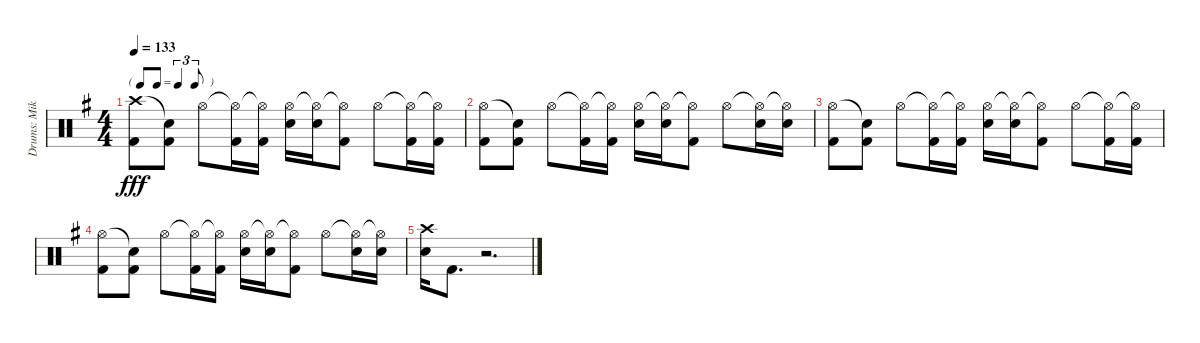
\track ("Drums: Mike" "Drums: Mik") {instrument percussion}
\staff {score}
\articulation defaults
\ts (4 4)
\tf triplet8th
\tempo 133
\clef neutral
\ks g
("Crash high (hit)" "Kick (hit) 2").8{dy fff} ("Snare (hit)"{t} "Kick (hit) 2").8 "Hi-Hat (open)".8 ("Hi-Hat (open)"{t} "Kick (hit) 2").16 ("Hi-Hat (open)"{t} "Kick (hit) 2").16 ("Hi-Hat (open)" "Electric Snare (hit)").16 ("Hi-Hat (open)"{t} "Electric Snare (hit)").16 ("Hi-Hat (open)"{t} "Kick (hit) 2").8 "Hi-Hat (open)".8 ("Hi-Hat (open)"{t} "Kick (hit) 2").16 ("Hi-Hat (open)"{t} "Kick (hit) 2").16 |
("Hi-Hat (open)" "Kick (hit) 2").8 ("Snare (hit)"{t} "Kick (hit) 2").8 "Hi-Hat (open)".8 ("Hi-Hat (open)"{t} "Kick (hit) 2").16 ("Hi-Hat (open)"{t} "Kick (hit) 2").16 ("Hi-Hat (open)" "Electric Snare (hit)").16 ("Hi-Hat (open)"{t} "Electric Snare (hit)").16 ("Hi-Hat (open)"{t} "Kick (hit) 2").8 "Hi-Hat (open)".8 ("Hi-Hat (open)"{t} "Electric Snare (hit)").16 ("Hi-Hat (open)"{t} "Electric Snare (hit)").16 |
("Hi-Hat (open)" "Kick (hit) 2").8 ("Snare (hit)"{t} "Kick (hit) 2").8 "Hi-Hat (open)".8 ("Hi-Hat (open)"{t} "Kick (hit) 2").16 ("Hi-Hat (open)"{t} "Kick (hit) 2").16 ("Hi-Hat (open)" "Electric Snare (hit)").16 ("Hi-Hat (open)"{t} "Electric Snare (hit)").16 ("Hi-Hat (open)"{t} "Kick (hit) 2").8 "Hi-Hat (open)".8 ("Hi-Hat (open)"{t} "Kick (hit) 2").16 ("Hi-Hat (open)"{t} "Kick (hit) 2").16 |
("Hi-Hat (open)" "Kick (hit) 2").8 ("Snare (hit)"{t} "Kick (hit) 2").8 "Hi-Hat (open)".8 ("Hi-Hat (open)"{t} "Kick (hit) 2").16 ("Hi-Hat (open)"{t} "Kick (hit) 2").16 ("Hi-Hat (open)" "Electric Snare (hit)").16 ("Hi-Hat (open)"{t} "Electric Snare (hit)").16 ("Hi-Hat (open)"{t} "Kick (hit) 2").8 "Hi-Hat (open)".8 ("Hi-Hat (open)"{t} "Electric Snare (hit)").16 ("Hi-Hat (open)"{t} "Electric Snare (hit)").16 |
("Crash high (hit)" "Electric Snare (hit)").16 "Kick (hit) 2".8{d} r.2{d}
